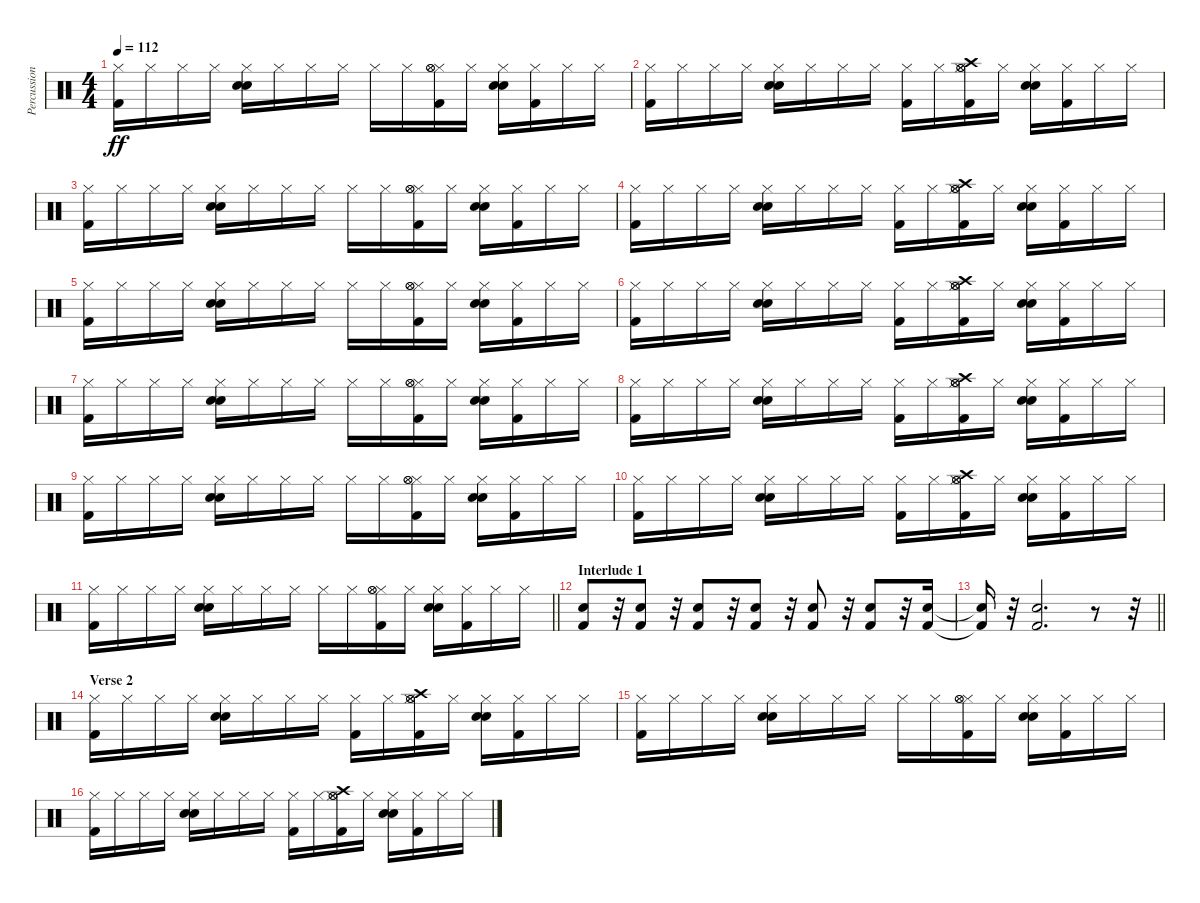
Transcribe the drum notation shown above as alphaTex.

\track ("Percussion" "Percussion") {instrument percussion}
\staff {score}
\articulation defaults
\ts (4 4)
\tempo 112
\clef neutral
\ks c
("Kick (hit) 2" "Hi-Hat (closed)").16{dy ff} "Hi-Hat (closed)".16 "Hi-Hat (closed)".16 "Hi-Hat (closed)".16 ("Snare (hit) 2" "Hi-Hat (closed)" "Hand Clap (hit)").16 "Hi-Hat (closed)".16 "Hi-Hat (closed)".16 "Hi-Hat (closed)".16 "Hi-Hat (closed)".16 "Hi-Hat (closed)".16 ("Kick (hit) 2" "Hi-Hat (closed)" "Hi-Hat (open)" "Hi-Hat (open)").16 "Hi-Hat (closed)".16 ("Snare (hit) 2" "Hi-Hat (closed)" "Hand Clap (hit)").16 ("Kick (hit) 2" "Hi-Hat (closed)").16 "Hi-Hat (closed)".16 "Hi-Hat (closed)".16 |
("Kick (hit) 2" "Hi-Hat (closed)").16 "Hi-Hat (closed)".16 "Hi-Hat (closed)".16 "Hi-Hat (closed)".16 ("Snare (hit) 2" "Hi-Hat (closed)" "Hand Clap (hit)").16 "Hi-Hat (closed)".16 "Hi-Hat (closed)".16 "Hi-Hat (closed)".16 ("Kick (hit) 2" "Hi-Hat (closed)").16 "Hi-Hat (closed)".16 ("Kick (hit) 2" "Crash high (hit)" "Hi-Hat (closed)" "Hi-Hat (open)" "Hi-Hat (open)").16 "Hi-Hat (closed)".16 ("Snare (hit) 2" "Hi-Hat (closed)" "Hand Clap (hit)").16 ("Kick (hit) 2" "Hi-Hat (closed)").16 "Hi-Hat (closed)".16 "Hi-Hat (closed)".16 |
("Kick (hit) 2" "Hi-Hat (closed)").16 "Hi-Hat (closed)".16 "Hi-Hat (closed)".16 "Hi-Hat (closed)".16 ("Snare (hit) 2" "Hi-Hat (closed)" "Hand Clap (hit)").16 "Hi-Hat (closed)".16 "Hi-Hat (closed)".16 "Hi-Hat (closed)".16 "Hi-Hat (closed)".16 "Hi-Hat (closed)".16 ("Kick (hit) 2" "Hi-Hat (closed)" "Hi-Hat (open)" "Hi-Hat (open)").16 "Hi-Hat (closed)".16 ("Snare (hit) 2" "Hi-Hat (closed)" "Hand Clap (hit)").16 ("Kick (hit) 2" "Hi-Hat (closed)").16 "Hi-Hat (closed)".16 "Hi-Hat (closed)".16 |
("Kick (hit) 2" "Hi-Hat (closed)").16 "Hi-Hat (closed)".16 "Hi-Hat (closed)".16 "Hi-Hat (closed)".16 ("Snare (hit) 2" "Hi-Hat (closed)" "Hand Clap (hit)").16 "Hi-Hat (closed)".16 "Hi-Hat (closed)".16 "Hi-Hat (closed)".16 ("Kick (hit) 2" "Hi-Hat (closed)").16 "Hi-Hat (closed)".16 ("Kick (hit) 2" "Crash high (hit)" "Hi-Hat (closed)" "Hi-Hat (open)" "Hi-Hat (open)").16 "Hi-Hat (closed)".16 ("Snare (hit) 2" "Hi-Hat (closed)" "Hand Clap (hit)").16 ("Kick (hit) 2" "Hi-Hat (closed)").16 "Hi-Hat (closed)".16 "Hi-Hat (closed)".16 |
("Kick (hit) 2" "Hi-Hat (closed)").16 "Hi-Hat (closed)".16 "Hi-Hat (closed)".16 "Hi-Hat (closed)".16 ("Snare (hit) 2" "Hi-Hat (closed)" "Hand Clap (hit)").16 "Hi-Hat (closed)".16 "Hi-Hat (closed)".16 "Hi-Hat (closed)".16 "Hi-Hat (closed)".16 "Hi-Hat (closed)".16 ("Kick (hit) 2" "Hi-Hat (closed)" "Hi-Hat (open)" "Hi-Hat (open)").16 "Hi-Hat (closed)".16 ("Snare (hit) 2" "Hi-Hat (closed)" "Hand Clap (hit)").16 ("Kick (hit) 2" "Hi-Hat (closed)").16 "Hi-Hat (closed)".16 "Hi-Hat (closed)".16 |
("Kick (hit) 2" "Hi-Hat (closed)").16 "Hi-Hat (closed)".16 "Hi-Hat (closed)".16 "Hi-Hat (closed)".16 ("Snare (hit) 2" "Hi-Hat (closed)" "Hand Clap (hit)").16 "Hi-Hat (closed)".16 "Hi-Hat (closed)".16 "Hi-Hat (closed)".16 ("Kick (hit) 2" "Hi-Hat (closed)").16 "Hi-Hat (closed)".16 ("Kick (hit) 2" "Crash high (hit)" "Hi-Hat (closed)" "Hi-Hat (open)" "Hi-Hat (open)").16 "Hi-Hat (closed)".16 ("Snare (hit) 2" "Hi-Hat (closed)" "Hand Clap (hit)").16 ("Kick (hit) 2" "Hi-Hat (closed)").16 "Hi-Hat (closed)".16 "Hi-Hat (closed)".16 |
("Kick (hit) 2" "Hi-Hat (closed)").16 "Hi-Hat (closed)".16 "Hi-Hat (closed)".16 "Hi-Hat (closed)".16 ("Snare (hit) 2" "Hi-Hat (closed)" "Hand Clap (hit)").16 "Hi-Hat (closed)".16 "Hi-Hat (closed)".16 "Hi-Hat (closed)".16 "Hi-Hat (closed)".16 "Hi-Hat (closed)".16 ("Kick (hit) 2" "Hi-Hat (closed)" "Hi-Hat (open)" "Hi-Hat (open)").16 "Hi-Hat (closed)".16 ("Snare (hit) 2" "Hi-Hat (closed)" "Hand Clap (hit)").16 ("Kick (hit) 2" "Hi-Hat (closed)").16 "Hi-Hat (closed)".16 "Hi-Hat (closed)".16 |
("Kick (hit) 2" "Hi-Hat (closed)").16 "Hi-Hat (closed)".16 "Hi-Hat (closed)".16 "Hi-Hat (closed)".16 ("Snare (hit) 2" "Hi-Hat (closed)" "Hand Clap (hit)").16 "Hi-Hat (closed)".16 "Hi-Hat (closed)".16 "Hi-Hat (closed)".16 ("Kick (hit) 2" "Hi-Hat (closed)").16 "Hi-Hat (closed)".16 ("Kick (hit) 2" "Crash high (hit)" "Hi-Hat (closed)" "Hi-Hat (open)" "Hi-Hat (open)").16 "Hi-Hat (closed)".16 ("Snare (hit) 2" "Hi-Hat (closed)" "Hand Clap (hit)").16 ("Kick (hit) 2" "Hi-Hat (closed)").16 "Hi-Hat (closed)".16 "Hi-Hat (closed)".16 |
("Kick (hit) 2" "Hi-Hat (closed)").16 "Hi-Hat (closed)".16 "Hi-Hat (closed)".16 "Hi-Hat (closed)".16 ("Snare (hit) 2" "Hi-Hat (closed)" "Hand Clap (hit)").16 "Hi-Hat (closed)".16 "Hi-Hat (closed)".16 "Hi-Hat (closed)".16 "Hi-Hat (closed)".16 "Hi-Hat (closed)".16 ("Kick (hit) 2" "Hi-Hat (closed)" "Hi-Hat (open)" "Hi-Hat (open)").16 "Hi-Hat (closed)".16 ("Snare (hit) 2" "Hi-Hat (closed)" "Hand Clap (hit)").16 ("Kick (hit) 2" "Hi-Hat (closed)").16 "Hi-Hat (closed)".16 "Hi-Hat (closed)".16 |
("Kick (hit) 2" "Hi-Hat (closed)").16 "Hi-Hat (closed)".16 "Hi-Hat (closed)".16 "Hi-Hat (closed)".16 ("Snare (hit) 2" "Hi-Hat (closed)" "Hand Clap (hit)").16 "Hi-Hat (closed)".16 "Hi-Hat (closed)".16 "Hi-Hat (closed)".16 ("Kick (hit) 2" "Hi-Hat (closed)").16 "Hi-Hat (closed)".16 ("Kick (hit) 2" "Crash high (hit)" "Hi-Hat (closed)" "Hi-Hat (open)" "Hi-Hat (open)").16 "Hi-Hat (closed)".16 ("Snare (hit) 2" "Hi-Hat (closed)" "Hand Clap (hit)").16 ("Kick (hit) 2" "Hi-Hat (closed)").16 "Hi-Hat (closed)".16 "Hi-Hat (closed)".16 |
\barLineRight lightlight
("Kick (hit) 2" "Hi-Hat (closed)").16 "Hi-Hat (closed)".16 "Hi-Hat (closed)".16 "Hi-Hat (closed)".16 ("Snare (hit) 2" "Hi-Hat (closed)" "Hand Clap (hit)").16 "Hi-Hat (closed)".16 "Hi-Hat (closed)".16 "Hi-Hat (closed)".16 "Hi-Hat (closed)".16 "Hi-Hat (closed)".16 ("Kick (hit) 2" "Hi-Hat (closed)" "Hi-Hat (open)" "Hi-Hat (open)").16 "Hi-Hat (closed)".16 ("Snare (hit) 2" "Hi-Hat (closed)" "Hand Clap (hit)").16 ("Kick (hit) 2" "Hi-Hat (closed)").16 "Hi-Hat (closed)".16 "Hi-Hat (closed)".16 |
\section ("" "Interlude 1")
("Kick (hit) 2" "Snare (hit) 2").8 r.32 ("Snare (hit) 2" "Kick (hit) 2").8 r.32 ("Kick (hit) 2" "Snare (hit) 2").8 r.32 ("Kick (hit) 2" "Snare (hit) 2").8 r.32 ("Kick (hit) 2" "Snare (hit) 2").8 r.32 ("Kick (hit) 2" "Snare (hit) 2").8 r.32 ("Kick (hit) 2" "Snare (hit) 2").16 |
\barLineRight lightlight
("Kick (hit) 2"{t} "Snare (hit) 2"{t}).16 r.32 ("Kick (hit) 2" "Snare (hit) 2").2{d} r.8 r.32 |
\section ("" "Verse 2")
("Kick (hit) 2" "Hi-Hat (closed)").16 "Hi-Hat (closed)".16 "Hi-Hat (closed)".16 "Hi-Hat (closed)".16 ("Snare (hit) 2" "Hi-Hat (closed)" "Hand Clap (hit)").16 "Hi-Hat (closed)".16 "Hi-Hat (closed)".16 "Hi-Hat (closed)".16 ("Kick (hit) 2" "Hi-Hat (closed)").16 "Hi-Hat (closed)".16 ("Kick (hit) 2" "Crash high (hit)" "Hi-Hat (closed)" "Hi-Hat (open)" "Hi-Hat (open)").16 "Hi-Hat (closed)".16 ("Snare (hit) 2" "Hi-Hat (closed)" "Hand Clap (hit)").16 ("Kick (hit) 2" "Hi-Hat (closed)").16 "Hi-Hat (closed)".16 "Hi-Hat (closed)".16 |
("Kick (hit) 2" "Hi-Hat (closed)").16 "Hi-Hat (closed)".16 "Hi-Hat (closed)".16 "Hi-Hat (closed)".16 ("Snare (hit) 2" "Hi-Hat (closed)" "Hand Clap (hit)").16 "Hi-Hat (closed)".16 "Hi-Hat (closed)".16 "Hi-Hat (closed)".16 "Hi-Hat (closed)".16 "Hi-Hat (closed)".16 ("Kick (hit) 2" "Hi-Hat (closed)" "Hi-Hat (open)" "Hi-Hat (open)").16 "Hi-Hat (closed)".16 ("Snare (hit) 2" "Hi-Hat (closed)" "Hand Clap (hit)").16 ("Kick (hit) 2" "Hi-Hat (closed)").16 "Hi-Hat (closed)".16 "Hi-Hat (closed)".16 |
("Kick (hit) 2" "Hi-Hat (closed)").16 "Hi-Hat (closed)".16 "Hi-Hat (closed)".16 "Hi-Hat (closed)".16 ("Snare (hit) 2" "Hi-Hat (closed)" "Hand Clap (hit)").16 "Hi-Hat (closed)".16 "Hi-Hat (closed)".16 "Hi-Hat (closed)".16 ("Kick (hit) 2" "Hi-Hat (closed)").16 "Hi-Hat (closed)".16 ("Kick (hit) 2" "Crash high (hit)" "Hi-Hat (closed)" "Hi-Hat (open)" "Hi-Hat (open)").16 "Hi-Hat (closed)".16 ("Snare (hit) 2" "Hi-Hat (closed)" "Hand Clap (hit)").16 ("Kick (hit) 2" "Hi-Hat (closed)").16 "Hi-Hat (closed)".16 "Hi-Hat (closed)".16
